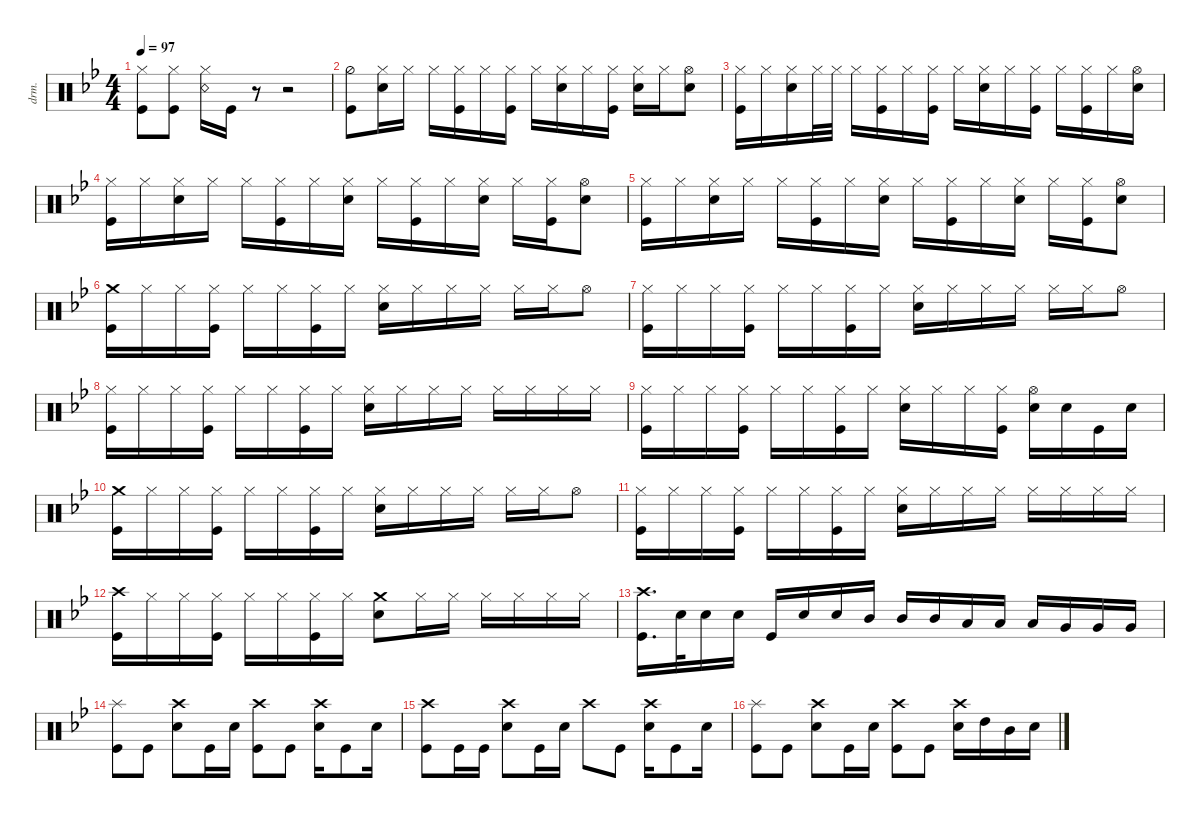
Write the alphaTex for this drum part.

\defaultSystemsLayout 4
\hideDynamics
\bracketExtendMode nobrackets
\otherSystemsTrackNameOrientation horizontal
\track ("Drumkit" "drm.") {instrument percussion}
\staff {score}
\articulation defaults
\ts (4 4)
\tempo 97
\clef neutral
\ks bb
("Kick (hit)" "Hi-Hat (closed)").8{dy p} ("Kick (hit)" "Hi-Hat (closed)").8 ("Snare (rim shot)" "Hi-Hat (closed)").16 "Kick (hit)".16 r.8 r.2 |
("Hi-Hat (half)" "Kick (hit)").8{dy mp} ("Hi-Hat (closed)" "Snare (hit) 2").16 "Hi-Hat (closed)".16 "Hi-Hat (closed)".16 ("Hi-Hat (closed)" "Kick (hit)").16 "Hi-Hat (closed)".16 ("Hi-Hat (closed)" "Kick (hit)").16 "Hi-Hat (closed)".16 ("Hi-Hat (closed)" "Snare (hit) 2").16 "Hi-Hat (closed)".16 ("Hi-Hat (closed)" "Kick (hit)").16 ("Hi-Hat (closed)" "Snare (hit) 2").16 "Hi-Hat (closed)".16 ("Hi-Hat (open)" "Snare (hit) 2").8 |
("Hi-Hat (closed)" "Kick (hit)").16 "Hi-Hat (closed)".16 ("Hi-Hat (closed)" "Snare (hit) 2").16 "Hi-Hat (closed)".32 "Hi-Hat (closed)".32 "Hi-Hat (closed)".16 ("Hi-Hat (closed)" "Kick (hit)").16 "Hi-Hat (closed)".16 ("Hi-Hat (closed)" "Kick (hit)").16 "Hi-Hat (closed)".16 ("Hi-Hat (closed)" "Snare (hit) 2").16 "Hi-Hat (closed)".16 ("Hi-Hat (closed)" "Kick (hit)").16 "Hi-Hat (closed)".16 ("Hi-Hat (closed)" "Kick (hit)").16 "Hi-Hat (closed)".16 ("Hi-Hat (open)" "Snare (hit) 2").16 |
("Hi-Hat (closed)" "Kick (hit)").16 "Hi-Hat (closed)".16 ("Hi-Hat (closed)" "Snare (hit) 2").16 "Hi-Hat (closed)".16 "Hi-Hat (closed)".16 ("Hi-Hat (closed)" "Kick (hit)").16 "Hi-Hat (closed)".16 ("Hi-Hat (closed)" "Snare (hit) 2").16 "Hi-Hat (closed)".16 ("Hi-Hat (closed)" "Kick (hit)").16 "Hi-Hat (closed)".16 ("Hi-Hat (closed)" "Snare (hit) 2").16 "Hi-Hat (closed)".16 ("Hi-Hat (closed)" "Kick (hit)").16 ("Hi-Hat (open)" "Snare (hit) 2").8 |
("Hi-Hat (closed)" "Kick (hit)").16 "Hi-Hat (closed)".16 ("Hi-Hat (closed)" "Snare (hit) 2").16 "Hi-Hat (closed)".16 "Hi-Hat (closed)".16 ("Hi-Hat (closed)" "Kick (hit)").16 "Hi-Hat (closed)".16 ("Hi-Hat (closed)" "Snare (hit) 2").16 "Hi-Hat (closed)".16 ("Hi-Hat (closed)" "Kick (hit)").16 "Hi-Hat (closed)".16 ("Hi-Hat (closed)" "Snare (hit) 2").16 "Hi-Hat (closed)".16 ("Hi-Hat (closed)" "Kick (hit)").16 ("Hi-Hat (open)" "Snare (hit) 2").8 |
("Crash medium (hit)" "Kick (hit)").16{dy mf} "Hi-Hat (closed)".16 "Hi-Hat (closed)".16 ("Hi-Hat (closed)" "Kick (hit)").16 "Hi-Hat (closed)".16 "Hi-Hat (closed)".16 ("Hi-Hat (closed)" "Kick (hit)").16 "Hi-Hat (closed)".16 ("Hi-Hat (closed)" "Snare (hit) 2").16 "Hi-Hat (closed)".16 "Hi-Hat (closed)".16 "Hi-Hat (closed)".16 "Hi-Hat (closed)".16 "Hi-Hat (closed)".16 "Hi-Hat (open)".8 |
("Kick (hit)" "Hi-Hat (closed)").16 "Hi-Hat (closed)".16 "Hi-Hat (closed)".16 ("Hi-Hat (closed)" "Kick (hit)").16 "Hi-Hat (closed)".16 "Hi-Hat (closed)".16 ("Hi-Hat (closed)" "Kick (hit)").16 "Hi-Hat (closed)".16 ("Hi-Hat (closed)" "Snare (hit) 2").16 "Hi-Hat (closed)".16 "Hi-Hat (closed)".16 "Hi-Hat (closed)".16 "Hi-Hat (closed)".16 "Hi-Hat (closed)".16 "Hi-Hat (open)".8 |
("Kick (hit)" "Hi-Hat (closed)").16 "Hi-Hat (closed)".16 "Hi-Hat (closed)".16 ("Hi-Hat (closed)" "Kick (hit)").16 "Hi-Hat (closed)".16 "Hi-Hat (closed)".16 ("Hi-Hat (closed)" "Kick (hit)").16 "Hi-Hat (closed)".16 ("Hi-Hat (closed)" "Snare (hit) 2").16 "Hi-Hat (closed)".16 "Hi-Hat (closed)".16 "Hi-Hat (closed)".16 "Hi-Hat (closed)".16 "Hi-Hat (closed)".16 "Hi-Hat (closed)".16 "Hi-Hat (closed)".16 |
("Kick (hit)" "Hi-Hat (closed)").16 "Hi-Hat (closed)".16 "Hi-Hat (closed)".16 ("Hi-Hat (closed)" "Kick (hit)").16 "Hi-Hat (closed)".16 "Hi-Hat (closed)".16 ("Hi-Hat (closed)" "Kick (hit)").16 "Hi-Hat (closed)".16 ("Hi-Hat (closed)" "Snare (hit) 2").16 "Hi-Hat (closed)".16 "Hi-Hat (closed)".16 ("Hi-Hat (closed)" "Kick (hit)").16 ("Hi-Hat (open)" "Snare (hit) 2").16 "Snare (hit) 2".16 "Kick (hit)".16 "Snare (hit) 2".16 |
("Crash medium (hit)" "Kick (hit)").16 "Hi-Hat (closed)".16 "Hi-Hat (closed)".16 ("Hi-Hat (closed)" "Kick (hit)").16 "Hi-Hat (closed)".16 "Hi-Hat (closed)".16 ("Hi-Hat (closed)" "Kick (hit)").16 "Hi-Hat (closed)".16 ("Hi-Hat (closed)" "Snare (hit) 2").16 "Hi-Hat (closed)".16 "Hi-Hat (closed)".16 "Hi-Hat (closed)".16 "Hi-Hat (closed)".16 "Hi-Hat (closed)".16 "Hi-Hat (open)".8 |
("Kick (hit)" "Hi-Hat (closed)").16 "Hi-Hat (closed)".16 "Hi-Hat (closed)".16 ("Hi-Hat (closed)" "Kick (hit)").16 "Hi-Hat (closed)".16 "Hi-Hat (closed)".16 ("Hi-Hat (closed)" "Kick (hit)").16 "Hi-Hat (closed)".16 ("Hi-Hat (closed)" "Snare (hit) 2").16 "Hi-Hat (closed)".16 "Hi-Hat (closed)".16 "Hi-Hat (closed)".16 "Hi-Hat (closed)".16 "Hi-Hat (closed)".16 "Hi-Hat (closed)".16 "Hi-Hat (closed)".16 |
("Kick (hit)" "Crash high (hit)").16 "Hi-Hat (closed)".16 "Hi-Hat (closed)".16 ("Hi-Hat (closed)" "Kick (hit)").16 "Hi-Hat (closed)".16 "Hi-Hat (closed)".16 ("Hi-Hat (closed)" "Kick (hit)").16 "Hi-Hat (closed)".16 ("Snare (hit) 2" "Crash medium (hit)").8 "Hi-Hat (closed)".16 "Hi-Hat (closed)".16 "Hi-Hat (closed)".16 "Hi-Hat (closed)".16 "Hi-Hat (closed)".16 "Hi-Hat (closed)".16 |
("Crash high (hit)" "Kick (hit)").16{d} "Snare (hit) 2".32 "Snare (hit) 2".16 "Snare (hit) 2".16 "Kick (hit)".16 "Snare (hit) 2".16 "Snare (hit) 2".16 "Mid Tom (hit)".16 "Mid Tom (hit)".16 "Mid Tom (hit)".16 "Low Tom (hit)".16 "Low Tom (hit)".16 "Low Tom (hit)".16 "Very Low Tom (hit)".16 "Very Low Tom (hit)".16 "Very Low Tom (hit)".16 |
("Kick (hit)" "Splash (hit)").8{dy mp} "Kick (hit)".8 ("Snare (hit) 2" "Crash high (hit)").8 "Kick (hit)".16 "Snare (hit) 2".16 ("Kick (hit)" "Crash high (hit)").8 "Kick (hit)".8 ("Snare (hit) 2" "Crash high (hit)").16 "Kick (hit)".8 "Snare (hit) 2".16 |
("Kick (hit)" "Crash high (hit)").8 "Kick (hit)".16 "Kick (hit)".16 ("Snare (hit) 2" "Crash high (hit)").8 "Kick (hit)".16 "Snare (hit) 2".16 "Crash high (hit)".8 "Kick (hit)".8 ("Snare (hit) 2" "Crash high (hit)").16 "Kick (hit)".8 "Snare (hit) 2".16 |
("Kick (hit)" "Splash (hit)").8 "Kick (hit)".8 ("Snare (hit) 2" "Crash high (hit)").8 "Kick (hit)".16 "Snare (hit) 2".16 ("Kick (hit)" "Crash high (hit)").8 "Kick (hit)".8 ("Snare (hit) 2" "Crash high (hit)").16 "High Tom (hit)".16 "Mid Tom (hit)".16 "Snare (hit) 2".16
